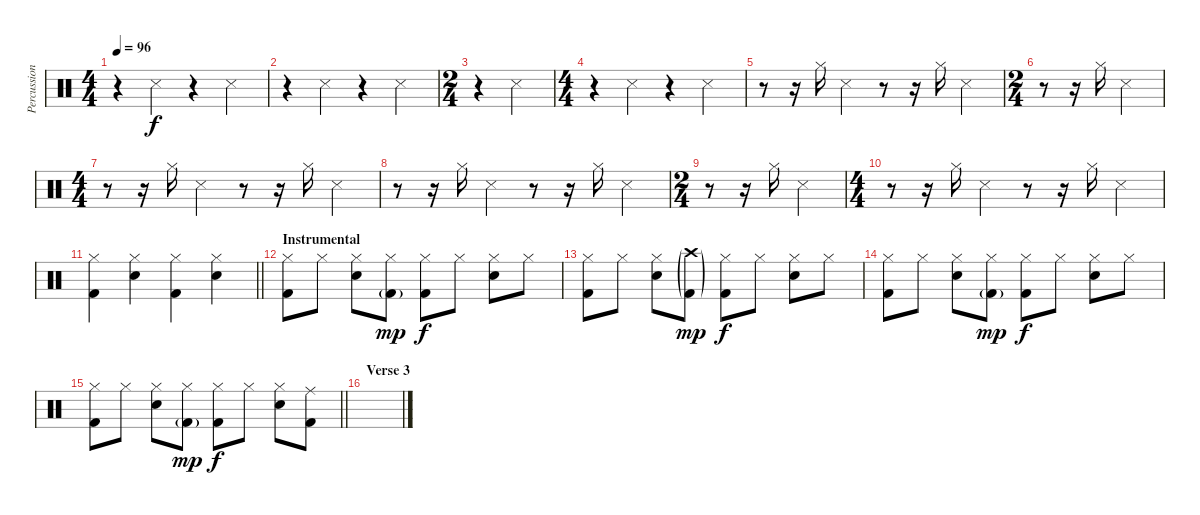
\track ("Percussion" "Percussion") {instrument percussion}
\staff {score}
\articulation defaults
\ts (4 4)
\tempo 96
\clef neutral
\ks c
r.4{dy f} "Snare (side stick) 3".4 r.4 "Snare (side stick) 3".4 |
r.4 "Snare (side stick) 3".4 r.4 "Snare (side stick) 3".4 |
\ts (2 4)
r.4 "Snare (side stick) 3".4 |
\ts (4 4)
r.4 "Snare (side stick) 3".4 r.4 "Snare (side stick) 3".4 |
r.8 r.16 "Hi-Hat (closed)".16 "Snare (side stick) 3".4 r.8 r.16 "Hi-Hat (closed)".16 "Snare (side stick) 3".4 |
\ts (2 4)
r.8 r.16 "Hi-Hat (closed)".16 "Snare (side stick) 3".4 |
\ts (4 4)
r.8 r.16 "Hi-Hat (closed)".16 "Snare (side stick) 3".4 r.8 r.16 "Hi-Hat (closed)".16 "Snare (side stick) 3".4 |
r.8 r.16 "Hi-Hat (closed)".16 "Snare (side stick) 3".4 r.8 r.16 "Hi-Hat (closed)".16 "Snare (side stick) 3".4 |
\ts (2 4)
r.8 r.16 "Hi-Hat (closed)".16 "Snare (side stick) 3".4 |
\ts (4 4)
r.8 r.16 "Hi-Hat (closed)".16 "Snare (side stick) 3".4 r.8 r.16 "Hi-Hat (closed)".16 "Snare (side stick) 3".4 |
\barLineRight lightlight
("Hi-Hat (closed)" "Kick (hit) 2").4 ("Hi-Hat (closed)" "Snare (hit) 2").4 ("Hi-Hat (closed)" "Kick (hit) 2").4 ("Hi-Hat (closed)" "Snare (hit) 2").4 |
\section ("" "Instrumental")
("Hi-Hat (closed)" "Kick (hit) 2").8 "Hi-Hat (closed)".8 ("Hi-Hat (closed)" "Snare (hit) 2").8 ("Hi-Hat (closed)" "Kick (hit) 2"{g}).8{dy mp} ("Hi-Hat (closed)" "Kick (hit) 2").8{dy f} "Hi-Hat (closed)".8 ("Hi-Hat (closed)" "Snare (hit) 2").8 "Hi-Hat (closed)".8 |
("Hi-Hat (closed)" "Kick (hit) 2").8 "Hi-Hat (closed)".8 ("Hi-Hat (closed)" "Snare (hit) 2").8 ("Crash high (hit)"{g} "Kick (hit) 2"{g}).8{dy mp} ("Hi-Hat (closed)" "Kick (hit) 2").8{dy f} "Hi-Hat (closed)".8 ("Hi-Hat (closed)" "Snare (hit) 2").8 "Hi-Hat (closed)".8 |
("Hi-Hat (closed)" "Kick (hit) 2").8 "Hi-Hat (closed)".8 ("Hi-Hat (closed)" "Snare (hit) 2").8 ("Hi-Hat (closed)" "Kick (hit) 2"{g}).8{dy mp} ("Hi-Hat (closed)" "Kick (hit) 2").8{dy f} "Hi-Hat (closed)".8 ("Hi-Hat (closed)" "Snare (hit) 2").8 "Hi-Hat (closed)".8 |
\barLineRight lightlight
("Hi-Hat (closed)" "Kick (hit) 2").8 "Hi-Hat (closed)".8 ("Hi-Hat (closed)" "Snare (hit) 2").8 ("Hi-Hat (closed)" "Kick (hit) 2"{g}).8{dy mp} ("Hi-Hat (closed)" "Kick (hit) 2").8{dy f} "Hi-Hat (closed)".8 ("Hi-Hat (closed)" "Snare (hit) 2").8 ("Ride (middle)" "Kick (hit) 2").8 |
\section ("" "Verse 3")
